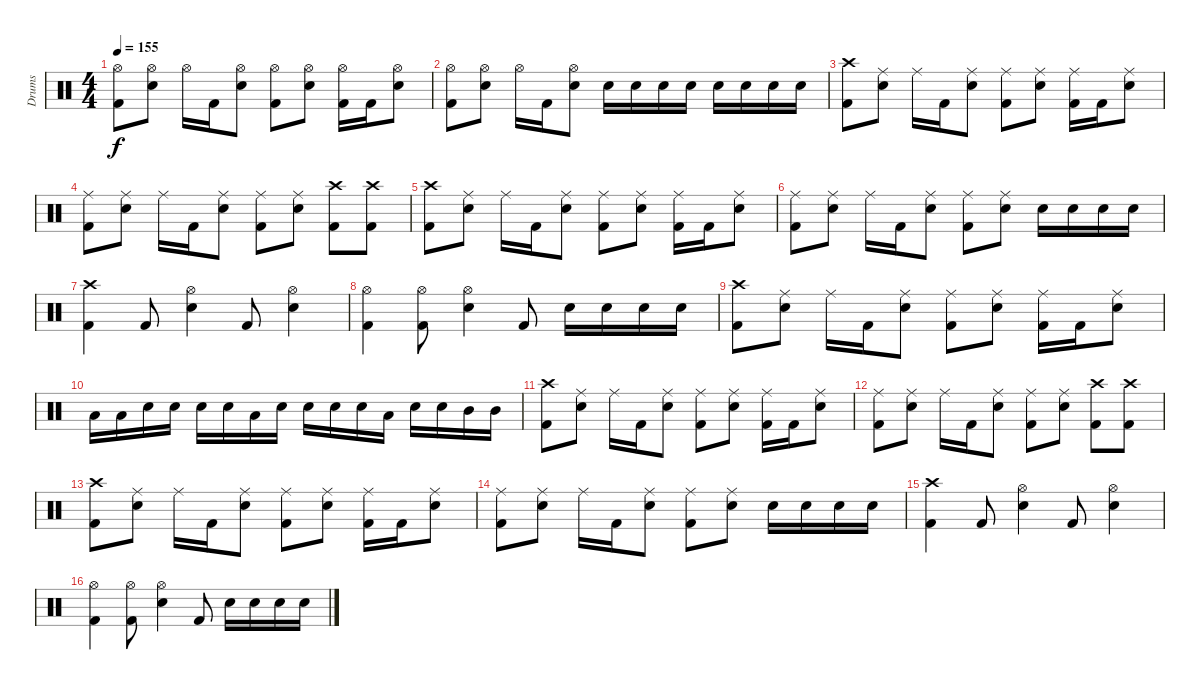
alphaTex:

\track ("Drums" "Drums") {instrument percussion}
\staff {score}
\articulation defaults
\ts (4 4)
\tempo 155
\clef neutral
\ks c
("Hi-Hat (open)" "Kick (hit) 2").8{dy f} ("Hi-Hat (open)" "Electric Snare (hit)").8 "Hi-Hat (open)".16 "Kick (hit) 2".16 ("Hi-Hat (open)" "Electric Snare (hit)").8 ("Hi-Hat (open)" "Kick (hit) 2").8 ("Hi-Hat (open)" "Electric Snare (hit)").8 ("Hi-Hat (open)" "Kick (hit) 2").16 "Kick (hit) 2".16 ("Hi-Hat (open)" "Electric Snare (hit)").8 |
("Hi-Hat (open)" "Kick (hit) 2").8 ("Hi-Hat (open)" "Electric Snare (hit)").8 "Hi-Hat (open)".16 "Kick (hit) 2".16 ("Hi-Hat (open)" "Electric Snare (hit)").8 "Electric Snare (hit)".16 "Electric Snare (hit)".16 "Electric Snare (hit)".16 "Electric Snare (hit)".16 "Electric Snare (hit)".16 "Electric Snare (hit)".16 "Electric Snare (hit)".16 "Electric Snare (hit)".16 |
("Crash high (hit)" "Kick (hit) 2").8 ("Ride (middle)" "Electric Snare (hit)").8 "Ride (middle)".16 "Kick (hit) 2".16 ("Ride (middle)" "Electric Snare (hit)").8 ("Ride (middle)" "Kick (hit) 2").8 ("Ride (middle)" "Electric Snare (hit)").8 ("Ride (middle)" "Kick (hit) 2").16 "Kick (hit) 2".16 ("Ride (middle)" "Electric Snare (hit)").8 |
("Ride (middle)" "Kick (hit) 2").8 ("Ride (middle)" "Electric Snare (hit)").8 "Ride (middle)".16 "Kick (hit) 2".16 ("Ride (middle)" "Electric Snare (hit)").8 ("Ride (middle)" "Kick (hit) 2").8 ("Ride (middle)" "Electric Snare (hit)").8 ("Crash high (hit)" "Kick (hit) 2").8 ("Crash high (hit)" "Kick (hit) 2").8 |
("Crash high (hit)" "Kick (hit) 2").8 ("Ride (middle)" "Electric Snare (hit)").8 "Ride (middle)".16 "Kick (hit) 2".16 ("Ride (middle)" "Electric Snare (hit)").8 ("Ride (middle)" "Kick (hit) 2").8 ("Ride (middle)" "Electric Snare (hit)").8 ("Ride (middle)" "Kick (hit) 2").16 "Kick (hit) 2".16 ("Ride (middle)" "Electric Snare (hit)").8 |
("Ride (middle)" "Kick (hit) 2").8 ("Ride (middle)" "Electric Snare (hit)").8 "Ride (middle)".16 "Kick (hit) 2".16 ("Ride (middle)" "Electric Snare (hit)").8 ("Ride (middle)" "Kick (hit) 2").8 ("Ride (middle)" "Electric Snare (hit)").8 "Electric Snare (hit)".16 "Electric Snare (hit)".16 "Electric Snare (hit)".16 "Electric Snare (hit)".16 |
("Crash high (hit)" "Kick (hit) 2").4 "Kick (hit) 2".8 ("Hi-Hat (open)" "Electric Snare (hit)").4 "Kick (hit) 2".8 ("Hi-Hat (open)" "Electric Snare (hit)").4 |
("Hi-Hat (open)" "Kick (hit) 2").4 ("Hi-Hat (open)" "Kick (hit) 2").8 ("Hi-Hat (open)" "Electric Snare (hit)").4 "Kick (hit) 2".8 "Electric Snare (hit)".16 "Electric Snare (hit)".16 "Electric Snare (hit)".16 "Electric Snare (hit)".16 |
("Crash high (hit)" "Kick (hit) 2").8 ("Ride (middle)" "Electric Snare (hit)").8 "Ride (middle)".16 "Kick (hit) 2".16 ("Ride (middle)" "Electric Snare (hit)").8 ("Ride (middle)" "Kick (hit) 2").8 ("Ride (middle)" "Electric Snare (hit)").8 ("Ride (middle)" "Kick (hit) 2").16 "Kick (hit) 2".16 ("Ride (middle)" "Electric Snare (hit)").8 |
"Low Floor Tom (hit)".16 "Low Floor Tom (hit)".16 "Electric Snare (hit)".16 "Electric Snare (hit)".16 "Electric Snare (hit)".16 "Electric Snare (hit)".16 "Low Floor Tom (hit)".16 "Electric Snare (hit)".16 "Electric Snare (hit)".16 "Electric Snare (hit)".16 "Electric Snare (hit)".16 "Low Floor Tom (hit)".16 "Electric Snare (hit)".16 "Electric Snare (hit)".16 "Mid Tom (hit)".16 "Mid Tom (hit)".16 |
("Crash high (hit)" "Kick (hit) 2").8 ("Ride (middle)" "Electric Snare (hit)").8 "Ride (middle)".16 "Kick (hit) 2".16 ("Ride (middle)" "Electric Snare (hit)").8 ("Ride (middle)" "Kick (hit) 2").8 ("Ride (middle)" "Electric Snare (hit)").8 ("Ride (middle)" "Kick (hit) 2").16 "Kick (hit) 2".16 ("Ride (middle)" "Electric Snare (hit)").8 |
("Ride (middle)" "Kick (hit) 2").8 ("Ride (middle)" "Electric Snare (hit)").8 "Ride (middle)".16 "Kick (hit) 2".16 ("Ride (middle)" "Electric Snare (hit)").8 ("Ride (middle)" "Kick (hit) 2").8 ("Ride (middle)" "Electric Snare (hit)").8 ("Crash high (hit)" "Kick (hit) 2").8 ("Crash high (hit)" "Kick (hit) 2").8 |
("Crash high (hit)" "Kick (hit) 2").8 ("Ride (middle)" "Electric Snare (hit)").8 "Ride (middle)".16 "Kick (hit) 2".16 ("Ride (middle)" "Electric Snare (hit)").8 ("Ride (middle)" "Kick (hit) 2").8 ("Ride (middle)" "Electric Snare (hit)").8 ("Ride (middle)" "Kick (hit) 2").16 "Kick (hit) 2".16 ("Ride (middle)" "Electric Snare (hit)").8 |
("Ride (middle)" "Kick (hit) 2").8 ("Ride (middle)" "Electric Snare (hit)").8 "Ride (middle)".16 "Kick (hit) 2".16 ("Ride (middle)" "Electric Snare (hit)").8 ("Ride (middle)" "Kick (hit) 2").8 ("Ride (middle)" "Electric Snare (hit)").8 "Electric Snare (hit)".16 "Electric Snare (hit)".16 "Electric Snare (hit)".16 "Electric Snare (hit)".16 |
("Crash high (hit)" "Kick (hit) 2").4 "Kick (hit) 2".8 ("Hi-Hat (open)" "Electric Snare (hit)").4 "Kick (hit) 2".8 ("Hi-Hat (open)" "Electric Snare (hit)").4 |
("Hi-Hat (open)" "Kick (hit) 2").4 ("Hi-Hat (open)" "Kick (hit) 2").8 ("Hi-Hat (open)" "Electric Snare (hit)").4 "Kick (hit) 2".8 "Electric Snare (hit)".16 "Electric Snare (hit)".16 "Electric Snare (hit)".16 "Electric Snare (hit)".16
